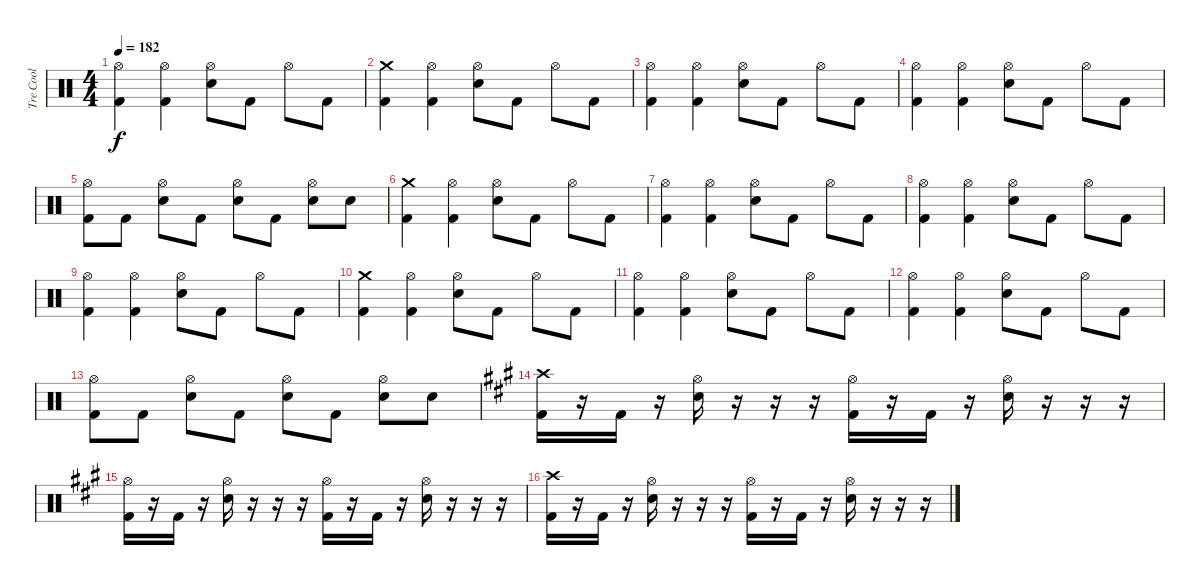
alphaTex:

\track ("Tre Cool" "Tre Cool") {instrument percussion}
\staff {score}
\articulation defaults
\ts (4 4)
\tempo 182
\clef neutral
\ks c
("Hi-Hat (open)" "Kick (hit) 2").4{dy f} ("Hi-Hat (open)" "Kick (hit) 2").4 ("Electric Snare (hit)" "Hi-Hat (open)").8 "Kick (hit) 2".8 "Hi-Hat (open)".8 "Kick (hit) 2".8 |
("Crash medium (hit)" "Kick (hit) 2").4 ("Hi-Hat (open)" "Kick (hit) 2").4 ("Electric Snare (hit)" "Hi-Hat (open)").8 "Kick (hit) 2".8 "Hi-Hat (open)".8 "Kick (hit) 2".8 |
("Hi-Hat (open)" "Kick (hit) 2").4 ("Hi-Hat (open)" "Kick (hit) 2").4 ("Electric Snare (hit)" "Hi-Hat (open)").8 "Kick (hit) 2".8 "Hi-Hat (open)".8 "Kick (hit) 2".8 |
("Hi-Hat (open)" "Kick (hit) 2").4 ("Hi-Hat (open)" "Kick (hit) 2").4 ("Electric Snare (hit)" "Hi-Hat (open)").8 "Kick (hit) 2".8 "Hi-Hat (open)".8 "Kick (hit) 2".8 |
("Hi-Hat (open)" "Kick (hit) 2").8 "Kick (hit) 2".8 ("Hi-Hat (open)" "Electric Snare (hit)").8 "Kick (hit) 2".8 ("Hi-Hat (open)" "Electric Snare (hit)").8 "Kick (hit) 2".8 ("Hi-Hat (open)" "Electric Snare (hit)").8 "Electric Snare (hit)".8 |
("Crash medium (hit)" "Kick (hit) 2").4 ("Hi-Hat (open)" "Kick (hit) 2").4 ("Electric Snare (hit)" "Hi-Hat (open)").8 "Kick (hit) 2".8 "Hi-Hat (open)".8 "Kick (hit) 2".8 |
("Hi-Hat (open)" "Kick (hit) 2").4 ("Hi-Hat (open)" "Kick (hit) 2").4 ("Electric Snare (hit)" "Hi-Hat (open)").8 "Kick (hit) 2".8 "Hi-Hat (open)".8 "Kick (hit) 2".8 |
("Hi-Hat (open)" "Kick (hit) 2").4 ("Hi-Hat (open)" "Kick (hit) 2").4 ("Electric Snare (hit)" "Hi-Hat (open)").8 "Kick (hit) 2".8 "Hi-Hat (open)".8 "Kick (hit) 2".8 |
("Hi-Hat (open)" "Kick (hit) 2").4 ("Hi-Hat (open)" "Kick (hit) 2").4 ("Electric Snare (hit)" "Hi-Hat (open)").8 "Kick (hit) 2".8 "Hi-Hat (open)".8 "Kick (hit) 2".8 |
("Crash medium (hit)" "Kick (hit) 2").4 ("Hi-Hat (open)" "Kick (hit) 2").4 ("Electric Snare (hit)" "Hi-Hat (open)").8 "Kick (hit) 2".8 "Hi-Hat (open)".8 "Kick (hit) 2".8 |
("Hi-Hat (open)" "Kick (hit) 2").4 ("Hi-Hat (open)" "Kick (hit) 2").4 ("Electric Snare (hit)" "Hi-Hat (open)").8 "Kick (hit) 2".8 "Hi-Hat (open)".8 "Kick (hit) 2".8 |
("Hi-Hat (open)" "Kick (hit) 2").4 ("Hi-Hat (open)" "Kick (hit) 2").4 ("Electric Snare (hit)" "Hi-Hat (open)").8 "Kick (hit) 2".8 "Hi-Hat (open)".8 "Kick (hit) 2".8 |
("Hi-Hat (open)" "Kick (hit) 2").8 "Kick (hit) 2".8 ("Hi-Hat (open)" "Electric Snare (hit)").8 "Kick (hit) 2".8 ("Hi-Hat (open)" "Electric Snare (hit)").8 "Kick (hit) 2".8 ("Hi-Hat (open)" "Electric Snare (hit)").8 "Electric Snare (hit)".8 |
\ks a
("Crash high (hit)" "Kick (hit) 2").16 r.16 "Kick (hit) 2".16 r.16 ("Hi-Hat (open)" "Snare (hit) 2").16 r.16 r.16 r.16 ("Hi-Hat (open)" "Kick (hit) 2").16 r.16 "Kick (hit) 2".16 r.16 ("Hi-Hat (open)" "Snare (hit) 2").16 r.16 r.16 r.16 |
("Hi-Hat (open)" "Kick (hit) 2").16 r.16 "Kick (hit) 2".16 r.16 ("Hi-Hat (open)" "Snare (hit) 2").16 r.16 r.16 r.16 ("Hi-Hat (open)" "Kick (hit) 2").16 r.16 "Kick (hit) 2".16 r.16 ("Hi-Hat (open)" "Snare (hit) 2").16 r.16 r.16 r.16 |
("Crash high (hit)" "Kick (hit) 2").16 r.16 "Kick (hit) 2".16 r.16 ("Hi-Hat (open)" "Snare (hit) 2").16 r.16 r.16 r.16 ("Hi-Hat (open)" "Kick (hit) 2").16 r.16 "Kick (hit) 2".16 r.16 ("Hi-Hat (open)" "Snare (hit) 2").16 r.16 r.16 r.16
